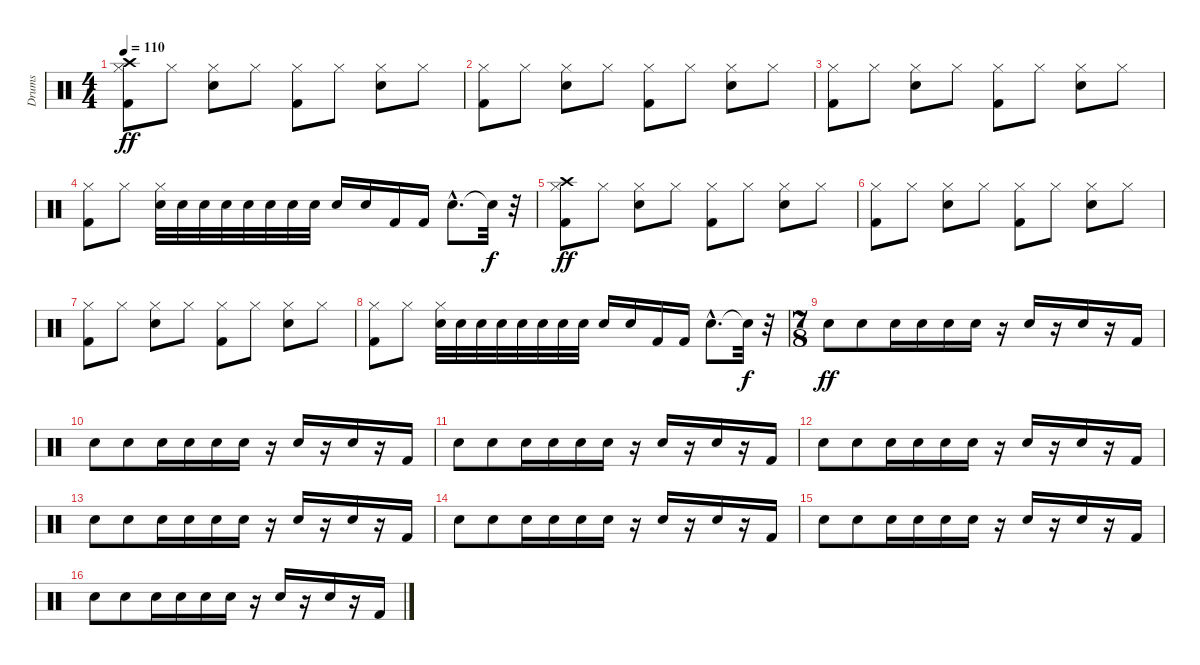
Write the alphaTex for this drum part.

\track ("Drums" "Drums") {instrument percussion}
\staff {score}
\articulation defaults
\ts (4 4)
\tempo 110
\clef neutral
\ks c
("Kick (hit) 2" "Hi-Hat (closed)" "Crash high (hit)").8{dy ff} "Hi-Hat (closed)".8 ("Snare (hit) 2" "Hi-Hat (closed)").8 "Hi-Hat (closed)".8 ("Kick (hit) 2" "Hi-Hat (closed)").8 "Hi-Hat (closed)".8 ("Snare (hit) 2" "Hi-Hat (closed)").8 "Hi-Hat (closed)".8 |
("Kick (hit) 2" "Hi-Hat (closed)").8 "Hi-Hat (closed)".8 ("Snare (hit) 2" "Hi-Hat (closed)").8 "Hi-Hat (closed)".8 ("Kick (hit) 2" "Hi-Hat (closed)").8 "Hi-Hat (closed)".8 ("Snare (hit) 2" "Hi-Hat (closed)").8 "Hi-Hat (closed)".8 |
("Kick (hit) 2" "Hi-Hat (closed)").8 "Hi-Hat (closed)".8 ("Snare (hit) 2" "Hi-Hat (closed)").8 "Hi-Hat (closed)".8 ("Kick (hit) 2" "Hi-Hat (closed)").8 "Hi-Hat (closed)".8 ("Snare (hit) 2" "Hi-Hat (closed)").8 "Hi-Hat (closed)".8 |
("Kick (hit) 2" "Hi-Hat (closed)").8 "Hi-Hat (closed)".8 ("Snare (hit) 2" "Hi-Hat (closed)").32 "Snare (hit) 2".32 "Snare (hit) 2".32 "Snare (hit) 2".32 "Snare (hit) 2".32 "Snare (hit) 2".32 "Snare (hit) 2".32 "Snare (hit) 2".32 "Snare (hit) 2".16 "Snare (hit) 2".16 "Kick (hit) 2".16 "Kick (hit) 2".16 "Snare (hit) 2"{hac}.8{d} "Snare (hit)"{t}.32{dy f} r.32 |
("Kick (hit) 2" "Hi-Hat (closed)" "Crash high (hit)").8{dy ff} "Hi-Hat (closed)".8 ("Snare (hit) 2" "Hi-Hat (closed)").8 "Hi-Hat (closed)".8 ("Kick (hit) 2" "Hi-Hat (closed)").8 "Hi-Hat (closed)".8 ("Snare (hit) 2" "Hi-Hat (closed)").8 "Hi-Hat (closed)".8 |
("Kick (hit) 2" "Hi-Hat (closed)").8 "Hi-Hat (closed)".8 ("Snare (hit) 2" "Hi-Hat (closed)").8 "Hi-Hat (closed)".8 ("Kick (hit) 2" "Hi-Hat (closed)").8 "Hi-Hat (closed)".8 ("Snare (hit) 2" "Hi-Hat (closed)").8 "Hi-Hat (closed)".8 |
("Kick (hit) 2" "Hi-Hat (closed)").8 "Hi-Hat (closed)".8 ("Snare (hit) 2" "Hi-Hat (closed)").8 "Hi-Hat (closed)".8 ("Kick (hit) 2" "Hi-Hat (closed)").8 "Hi-Hat (closed)".8 ("Snare (hit) 2" "Hi-Hat (closed)").8 "Hi-Hat (closed)".8 |
("Kick (hit) 2" "Hi-Hat (closed)").8 "Hi-Hat (closed)".8 ("Snare (hit) 2" "Hi-Hat (closed)").32 "Snare (hit) 2".32 "Snare (hit) 2".32 "Snare (hit) 2".32 "Snare (hit) 2".32 "Snare (hit) 2".32 "Snare (hit) 2".32 "Snare (hit) 2".32 "Snare (hit) 2".16 "Snare (hit) 2".16 "Kick (hit) 2".16 "Kick (hit) 2".16 "Snare (hit) 2"{hac}.8{d} "Snare (hit)"{t}.32{dy f} r.32 |
\ts (7 8)
"Snare (hit) 2".8{dy ff} "Snare (hit) 2".8 "Snare (hit) 2".16 "Snare (hit) 2".16 "Snare (hit) 2".16 "Snare (hit) 2".16 r.16 "Snare (hit) 2".16 r.16 "Snare (hit) 2".16 r.16 "Kick (hit) 2".16 |
"Snare (hit) 2".8 "Snare (hit) 2".8 "Snare (hit) 2".16 "Snare (hit) 2".16 "Snare (hit) 2".16 "Snare (hit) 2".16 r.16 "Snare (hit) 2".16 r.16 "Snare (hit) 2".16 r.16 "Kick (hit) 2".16 |
"Snare (hit) 2".8 "Snare (hit) 2".8 "Snare (hit) 2".16 "Snare (hit) 2".16 "Snare (hit) 2".16 "Snare (hit) 2".16 r.16 "Snare (hit) 2".16 r.16 "Snare (hit) 2".16 r.16 "Kick (hit) 2".16 |
"Snare (hit) 2".8 "Snare (hit) 2".8 "Snare (hit) 2".16 "Snare (hit) 2".16 "Snare (hit) 2".16 "Snare (hit) 2".16 r.16 "Snare (hit) 2".16 r.16 "Snare (hit) 2".16 r.16 "Kick (hit) 2".16 |
"Snare (hit) 2".8 "Snare (hit) 2".8 "Snare (hit) 2".16 "Snare (hit) 2".16 "Snare (hit) 2".16 "Snare (hit) 2".16 r.16 "Snare (hit) 2".16 r.16 "Snare (hit) 2".16 r.16 "Kick (hit) 2".16 |
"Snare (hit) 2".8 "Snare (hit) 2".8 "Snare (hit) 2".16 "Snare (hit) 2".16 "Snare (hit) 2".16 "Snare (hit) 2".16 r.16 "Snare (hit) 2".16 r.16 "Snare (hit) 2".16 r.16 "Kick (hit) 2".16 |
"Snare (hit) 2".8 "Snare (hit) 2".8 "Snare (hit) 2".16 "Snare (hit) 2".16 "Snare (hit) 2".16 "Snare (hit) 2".16 r.16 "Snare (hit) 2".16 r.16 "Snare (hit) 2".16 r.16 "Kick (hit) 2".16 |
"Snare (hit) 2".8 "Snare (hit) 2".8 "Snare (hit) 2".16 "Snare (hit) 2".16 "Snare (hit) 2".16 "Snare (hit) 2".16 r.16 "Snare (hit) 2".16 r.16 "Snare (hit) 2".16 r.16 "Kick (hit) 2".16
